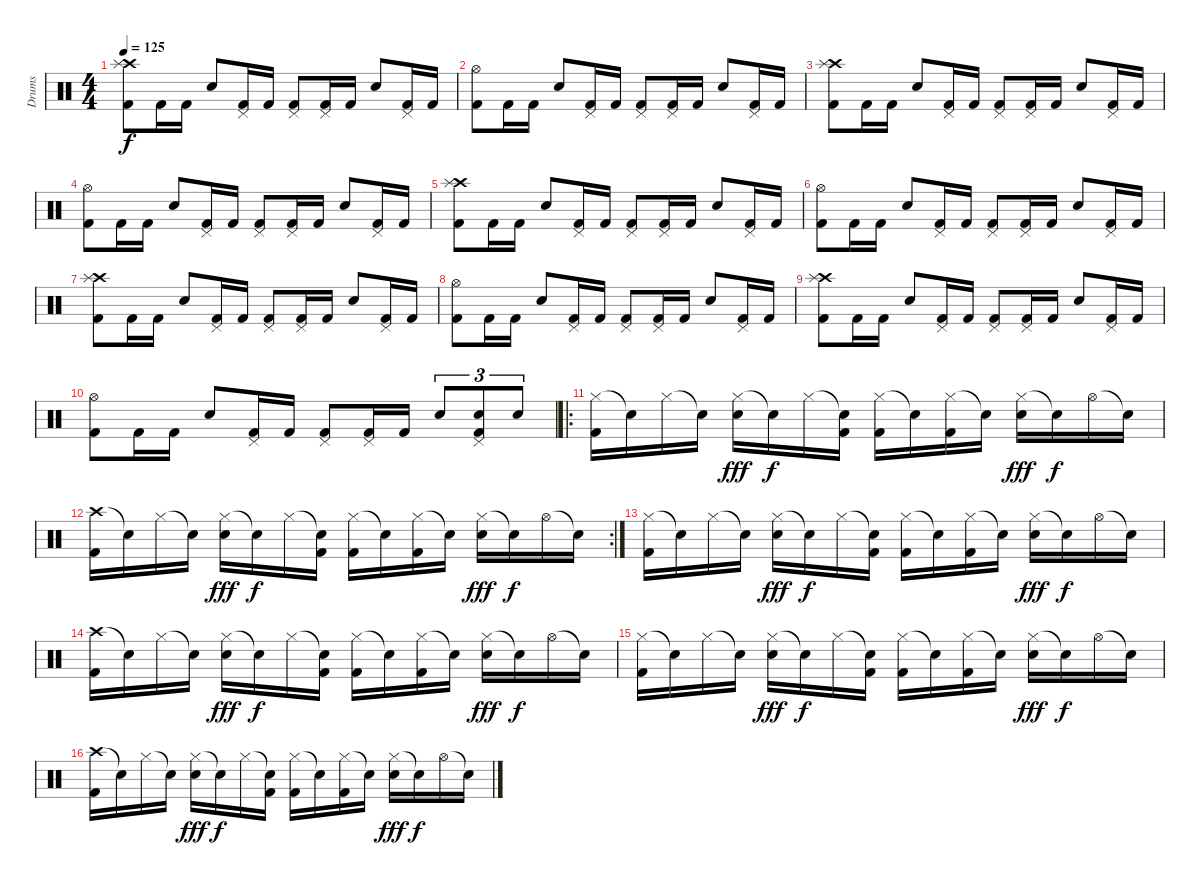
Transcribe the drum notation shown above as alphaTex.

\track ("Drums" "Drums") {instrument percussion}
\staff {score}
\articulation defaults
\ts (4 4)
\tempo 125
\clef neutral
\ks c
("Crash high (hit)" "Splash (hit)" "Kick (hit) 2").8{dy f} "Kick (hit) 2".16 "Kick (hit) 2".16 "Electric Snare (hit)".8 ("Pedal Hi-Hat (hit)" "Kick (hit) 2").16 "Kick (hit) 2".16 ("Pedal Hi-Hat (hit)" "Kick (hit) 2").8 ("Pedal Hi-Hat (hit)" "Kick (hit) 2").16 "Kick (hit) 2".16 "Electric Snare (hit)".8 ("Pedal Hi-Hat (hit)" "Kick (hit) 2").16 "Kick (hit) 2".16 |
("Hi-Hat (open)" "Kick (hit) 2").8 "Kick (hit) 2".16 "Kick (hit) 2".16 "Electric Snare (hit)".8 ("Pedal Hi-Hat (hit)" "Kick (hit) 2").16 "Kick (hit) 2".16 ("Pedal Hi-Hat (hit)" "Kick (hit) 2").8 ("Pedal Hi-Hat (hit)" "Kick (hit) 2").16 "Kick (hit) 2".16 "Electric Snare (hit)".8 ("Pedal Hi-Hat (hit)" "Kick (hit) 2").16 "Kick (hit) 2".16 |
("Crash high (hit)" "Splash (hit)" "Kick (hit) 2").8 "Kick (hit) 2".16 "Kick (hit) 2".16 "Electric Snare (hit)".8 ("Pedal Hi-Hat (hit)" "Kick (hit) 2").16 "Kick (hit) 2".16 ("Pedal Hi-Hat (hit)" "Kick (hit) 2").8 ("Pedal Hi-Hat (hit)" "Kick (hit) 2").16 "Kick (hit) 2".16 "Electric Snare (hit)".8 ("Pedal Hi-Hat (hit)" "Kick (hit) 2").16 "Kick (hit) 2".16 |
("Hi-Hat (open)" "Kick (hit) 2").8 "Kick (hit) 2".16 "Kick (hit) 2".16 "Electric Snare (hit)".8 ("Pedal Hi-Hat (hit)" "Kick (hit) 2").16 "Kick (hit) 2".16 ("Pedal Hi-Hat (hit)" "Kick (hit) 2").8 ("Pedal Hi-Hat (hit)" "Kick (hit) 2").16 "Kick (hit) 2".16 "Electric Snare (hit)".8 ("Pedal Hi-Hat (hit)" "Kick (hit) 2").16 "Kick (hit) 2".16 |
("Crash high (hit)" "Splash (hit)" "Kick (hit) 2").8 "Kick (hit) 2".16 "Kick (hit) 2".16 "Electric Snare (hit)".8 ("Pedal Hi-Hat (hit)" "Kick (hit) 2").16 "Kick (hit) 2".16 ("Pedal Hi-Hat (hit)" "Kick (hit) 2").8 ("Pedal Hi-Hat (hit)" "Kick (hit) 2").16 "Kick (hit) 2".16 "Electric Snare (hit)".8 ("Pedal Hi-Hat (hit)" "Kick (hit) 2").16 "Kick (hit) 2".16 |
("Hi-Hat (open)" "Kick (hit) 2").8 "Kick (hit) 2".16 "Kick (hit) 2".16 "Electric Snare (hit)".8 ("Pedal Hi-Hat (hit)" "Kick (hit) 2").16 "Kick (hit) 2".16 ("Pedal Hi-Hat (hit)" "Kick (hit) 2").8 ("Pedal Hi-Hat (hit)" "Kick (hit) 2").16 "Kick (hit) 2".16 "Electric Snare (hit)".8 ("Pedal Hi-Hat (hit)" "Kick (hit) 2").16 "Kick (hit) 2".16 |
("Crash high (hit)" "Splash (hit)" "Kick (hit) 2").8 "Kick (hit) 2".16 "Kick (hit) 2".16 "Electric Snare (hit)".8 ("Pedal Hi-Hat (hit)" "Kick (hit) 2").16 "Kick (hit) 2".16 ("Pedal Hi-Hat (hit)" "Kick (hit) 2").8 ("Pedal Hi-Hat (hit)" "Kick (hit) 2").16 "Kick (hit) 2".16 "Electric Snare (hit)".8 ("Pedal Hi-Hat (hit)" "Kick (hit) 2").16 "Kick (hit) 2".16 |
("Hi-Hat (open)" "Kick (hit) 2").8 "Kick (hit) 2".16 "Kick (hit) 2".16 "Electric Snare (hit)".8 ("Pedal Hi-Hat (hit)" "Kick (hit) 2").16 "Kick (hit) 2".16 ("Pedal Hi-Hat (hit)" "Kick (hit) 2").8 ("Pedal Hi-Hat (hit)" "Kick (hit) 2").16 "Kick (hit) 2".16 "Electric Snare (hit)".8 ("Pedal Hi-Hat (hit)" "Kick (hit) 2").16 "Kick (hit) 2".16 |
("Crash high (hit)" "Splash (hit)" "Kick (hit) 2").8 "Kick (hit) 2".16 "Kick (hit) 2".16 "Electric Snare (hit)".8 ("Pedal Hi-Hat (hit)" "Kick (hit) 2").16 "Kick (hit) 2".16 ("Pedal Hi-Hat (hit)" "Kick (hit) 2").8 ("Pedal Hi-Hat (hit)" "Kick (hit) 2").16 "Kick (hit) 2".16 "Electric Snare (hit)".8 ("Pedal Hi-Hat (hit)" "Kick (hit) 2").16 "Kick (hit) 2".16 |
("Hi-Hat (open)" "Kick (hit) 2").8 "Kick (hit) 2".16 "Kick (hit) 2".16 "Electric Snare (hit)".8 ("Pedal Hi-Hat (hit)" "Kick (hit) 2").16 "Kick (hit) 2".16 ("Pedal Hi-Hat (hit)" "Kick (hit) 2").8 ("Pedal Hi-Hat (hit)" "Kick (hit) 2").16 "Kick (hit) 2".16 "Electric Snare (hit)".8{tu (3 2)} ("Pedal Hi-Hat (hit)" "Electric Snare (hit)" "Kick (hit) 2").8{tu (3 2)} "Electric Snare (hit)".8{tu (3 2)} |
\ro
("Hi-Hat (closed)" "Kick (hit) 2").16 "Snare (hit)"{t}.16 "Hi-Hat (closed)".16 "Snare (hit)"{t}.16 ("Hi-Hat (closed)" "Electric Snare (hit)").16{dy fff} "Snare (hit)"{t}.16{dy f} "Hi-Hat (closed)".16 ("Snare (hit)"{t} "Kick (hit) 2").16 ("Hi-Hat (closed)" "Kick (hit) 2").16 "Snare (hit)"{t}.16 ("Hi-Hat (closed)" "Kick (hit) 2").16 "Snare (hit)"{t}.16 ("Hi-Hat (closed)" "Electric Snare (hit)").16{dy fff} "Snare (hit)"{t}.16{dy f} "Hi-Hat (open)".16 "Snare (hit)"{t}.16 |
\rc 2
("Crash high (hit)" "Kick (hit) 2").16 "Snare (hit)"{t}.16 "Hi-Hat (closed)".16 "Snare (hit)"{t}.16 ("Hi-Hat (closed)" "Electric Snare (hit)").16{dy fff} "Snare (hit)"{t}.16{dy f} "Hi-Hat (closed)".16 ("Snare (hit)"{t} "Kick (hit) 2").16 ("Hi-Hat (closed)" "Kick (hit) 2").16 "Snare (hit)"{t}.16 ("Hi-Hat (closed)" "Kick (hit) 2").16 "Snare (hit)"{t}.16 ("Hi-Hat (closed)" "Electric Snare (hit)").16{dy fff} "Snare (hit)"{t}.16{dy f} "Hi-Hat (open)".16 "Snare (hit)"{t}.16 |
("Hi-Hat (closed)" "Kick (hit) 2").16 "Snare (hit)"{t}.16 "Hi-Hat (closed)".16 "Snare (hit)"{t}.16 ("Hi-Hat (closed)" "Electric Snare (hit)").16{dy fff} "Snare (hit)"{t}.16{dy f} "Hi-Hat (closed)".16 ("Snare (hit)"{t} "Kick (hit) 2").16 ("Hi-Hat (closed)" "Kick (hit) 2").16 "Snare (hit)"{t}.16 ("Hi-Hat (closed)" "Kick (hit) 2").16 "Snare (hit)"{t}.16 ("Hi-Hat (closed)" "Electric Snare (hit)").16{dy fff} "Snare (hit)"{t}.16{dy f} "Hi-Hat (open)".16 "Snare (hit)"{t}.16 |
("Crash high (hit)" "Kick (hit) 2").16 "Snare (hit)"{t}.16 "Hi-Hat (closed)".16 "Snare (hit)"{t}.16 ("Hi-Hat (closed)" "Electric Snare (hit)").16{dy fff} "Snare (hit)"{t}.16{dy f} "Hi-Hat (closed)".16 ("Snare (hit)"{t} "Kick (hit) 2").16 ("Hi-Hat (closed)" "Kick (hit) 2").16 "Snare (hit)"{t}.16 ("Hi-Hat (closed)" "Kick (hit) 2").16 "Snare (hit)"{t}.16 ("Hi-Hat (closed)" "Electric Snare (hit)").16{dy fff} "Snare (hit)"{t}.16{dy f} "Hi-Hat (open)".16 "Snare (hit)"{t}.16 |
("Hi-Hat (closed)" "Kick (hit) 2").16 "Snare (hit)"{t}.16 "Hi-Hat (closed)".16 "Snare (hit)"{t}.16 ("Hi-Hat (closed)" "Electric Snare (hit)").16{dy fff} "Snare (hit)"{t}.16{dy f} "Hi-Hat (closed)".16 ("Snare (hit)"{t} "Kick (hit) 2").16 ("Hi-Hat (closed)" "Kick (hit) 2").16 "Snare (hit)"{t}.16 ("Hi-Hat (closed)" "Kick (hit) 2").16 "Snare (hit)"{t}.16 ("Hi-Hat (closed)" "Electric Snare (hit)").16{dy fff} "Snare (hit)"{t}.16{dy f} "Hi-Hat (open)".16 "Snare (hit)"{t}.16 |
("Crash high (hit)" "Kick (hit) 2").16 "Snare (hit)"{t}.16 "Hi-Hat (closed)".16 "Snare (hit)"{t}.16 ("Hi-Hat (closed)" "Electric Snare (hit)").16{dy fff} "Snare (hit)"{t}.16{dy f} "Hi-Hat (closed)".16 ("Snare (hit)"{t} "Kick (hit) 2").16 ("Hi-Hat (closed)" "Kick (hit) 2").16 "Snare (hit)"{t}.16 ("Hi-Hat (closed)" "Kick (hit) 2").16 "Snare (hit)"{t}.16 ("Hi-Hat (closed)" "Electric Snare (hit)").16{dy fff} "Snare (hit)"{t}.16{dy f} "Hi-Hat (open)".16 "Snare (hit)"{t}.16
